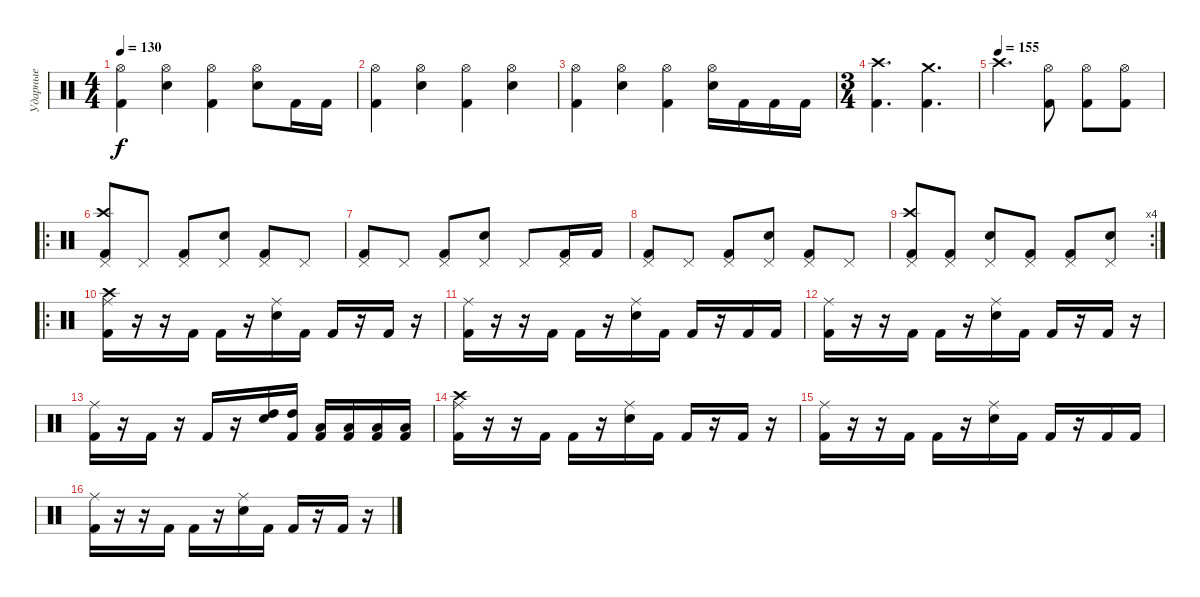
\track ("Ударные" "Ударные") {instrument percussion}
\staff {score}
\articulation defaults
\ts (4 4)
\tempo 130
\clef neutral
\ks c
("Hi-Hat (open)" "Kick (hit) 2").4{dy f} ("Hi-Hat (open)" "Snare (hit) 2").4 ("Hi-Hat (open)" "Kick (hit) 2").4 ("Hi-Hat (open)" "Snare (hit) 2").8 "Kick (hit) 2".16 "Kick (hit) 2".16 |
("Hi-Hat (open)" "Kick (hit) 2").4 ("Hi-Hat (open)" "Snare (hit) 2").4 ("Hi-Hat (open)" "Kick (hit) 2").4 ("Hi-Hat (open)" "Snare (hit) 2").4 |
("Hi-Hat (open)" "Kick (hit) 2").4 ("Hi-Hat (open)" "Snare (hit) 2").4 ("Hi-Hat (open)" "Kick (hit) 2").4 ("Hi-Hat (open)" "Snare (hit) 2").16 "Kick (hit) 2".16 "Kick (hit) 2".16 "Kick (hit) 2".16 |
\ts (3 4)
("Kick (hit) 2" "Crash high (hit)").4{d} ("Kick (hit) 2" "Crash medium (hit)").4{d} |
\tempo (155)
"Crash high (hit)".4{d} ("Hi-Hat (open)" "Kick (hit) 2").8 ("Hi-Hat (open)" "Kick (hit) 2").8 ("Hi-Hat (open)" "Kick (hit) 2").8 |
\ro
("Crash high (hit)" "Pedal Hi-Hat (hit)" "Kick (hit) 2").8 "Pedal Hi-Hat (hit)".8 ("Pedal Hi-Hat (hit)" "Kick (hit) 2").8 ("Snare (hit) 2" "Pedal Hi-Hat (hit)").8 ("Pedal Hi-Hat (hit)" "Kick (hit) 2").8 "Pedal Hi-Hat (hit)".8 |
("Pedal Hi-Hat (hit)" "Kick (hit) 2").8 "Pedal Hi-Hat (hit)".8 ("Pedal Hi-Hat (hit)" "Kick (hit) 2").8 ("Snare (hit) 2" "Pedal Hi-Hat (hit)").8 "Pedal Hi-Hat (hit)".8 ("Pedal Hi-Hat (hit)" "Kick (hit) 2").16 "Kick (hit) 2".16 |
("Pedal Hi-Hat (hit)" "Kick (hit) 2").8 "Pedal Hi-Hat (hit)".8 ("Pedal Hi-Hat (hit)" "Kick (hit) 2").8 ("Snare (hit) 2" "Pedal Hi-Hat (hit)").8 ("Pedal Hi-Hat (hit)" "Kick (hit) 2").8 "Pedal Hi-Hat (hit)".8 |
\rc 4
("Crash high (hit)" "Pedal Hi-Hat (hit)" "Kick (hit) 2").8 ("Pedal Hi-Hat (hit)" "Kick (hit) 2").8 ("Pedal Hi-Hat (hit)" "Snare (hit) 2").8 ("Pedal Hi-Hat (hit)" "Kick (hit) 2").8 ("Pedal Hi-Hat (hit)" "Kick (hit) 2").8 ("Pedal Hi-Hat (hit)" "Snare (hit) 2").8 |
\ro
("Ride (middle)" "Crash high (hit)" "Kick (hit) 2").16 r.16 r.16 "Kick (hit) 2".16 "Kick (hit) 2".16 r.16 ("Ride (middle)" "Snare (hit) 2").16 "Kick (hit) 2".16 "Kick (hit) 2".16 r.16 "Kick (hit) 2".16 r.16 |
("Ride (middle)" "Kick (hit) 2").16 r.16 r.16 "Kick (hit) 2".16 "Kick (hit) 2".16 r.16 ("Ride (middle)" "Snare (hit) 2").16 "Kick (hit) 2".16 "Kick (hit) 2".16 r.16 "Kick (hit) 2".16 "Kick (hit) 2".16 |
("Ride (middle)" "Kick (hit) 2").16 r.16 r.16 "Kick (hit) 2".16 "Kick (hit) 2".16 r.16 ("Ride (middle)" "Snare (hit) 2").16 "Kick (hit) 2".16 "Kick (hit) 2".16 r.16 "Kick (hit) 2".16 r.16 |
("Ride (middle)" "Kick (hit) 2").16 r.16 "Kick (hit) 2".16 r.16 "Kick (hit) 2".16 r.16 ("High Tom (hit)" "Snare (hit) 2").16 ("High Tom (hit)" "Kick (hit) 2").16 ("Low Tom (hit)" "Kick (hit) 2").16 ("Low Floor Tom (hit)" "Kick (hit) 2").16 ("Low Floor Tom (hit)" "Kick (hit) 2").16 ("Low Floor Tom (hit)" "Kick (hit) 2").16 |
("Ride (middle)" "Crash high (hit)" "Kick (hit) 2").16 r.16 r.16 "Kick (hit) 2".16 "Kick (hit) 2".16 r.16 ("Ride (middle)" "Snare (hit) 2").16 "Kick (hit) 2".16 "Kick (hit) 2".16 r.16 "Kick (hit) 2".16 r.16 |
("Ride (middle)" "Kick (hit) 2").16 r.16 r.16 "Kick (hit) 2".16 "Kick (hit) 2".16 r.16 ("Ride (middle)" "Snare (hit) 2").16 "Kick (hit) 2".16 "Kick (hit) 2".16 r.16 "Kick (hit) 2".16 "Kick (hit) 2".16 |
("Ride (middle)" "Kick (hit) 2").16 r.16 r.16 "Kick (hit) 2".16 "Kick (hit) 2".16 r.16 ("Ride (middle)" "Snare (hit) 2").16 "Kick (hit) 2".16 "Kick (hit) 2".16 r.16 "Kick (hit) 2".16 r.16
